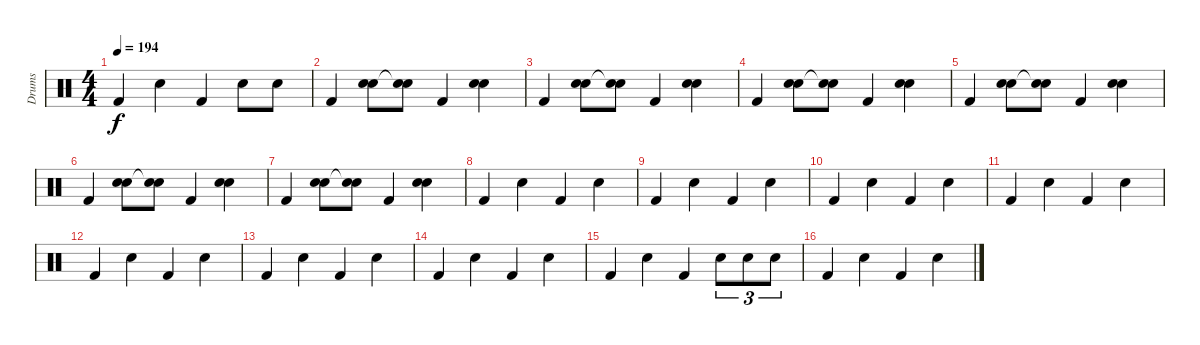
\track ("Drums" "Drums") {instrument percussion}
\staff {score}
\articulation defaults
\ts (4 4)
\tempo 194
\clef neutral
\ks c "Kick (hit) 2".4{dy f} "Snare (hit) 2".4 "Kick (hit) 2".4 "Snare (hit) 2".8 "Snare (hit) 2".8
|
"Kick (hit) 2".4 ("Snare (hit) 2" "Hand Clap (hit)").8 ("Snare (hit)"{t} "Hand Clap (hit)").8 "Kick (hit) 2".4 ("Snare (hit) 2" "Hand Clap (hit)").4 |
"Kick (hit) 2".4 ("Snare (hit) 2" "Hand Clap (hit)").8 ("Snare (hit)"{t} "Hand Clap (hit)").8 "Kick (hit) 2".4 ("Snare (hit) 2" "Hand Clap (hit)").4 |
"Kick (hit) 2".4 ("Snare (hit) 2" "Hand Clap (hit)").8 ("Snare (hit)"{t} "Hand Clap (hit)").8 "Kick (hit) 2".4 ("Snare (hit) 2" "Hand Clap (hit)").4 |
"Kick (hit) 2".4 ("Snare (hit) 2" "Hand Clap (hit)").8 ("Snare (hit)"{t} "Hand Clap (hit)").8 "Kick (hit) 2".4 ("Snare (hit) 2" "Hand Clap (hit)").4 |
"Kick (hit) 2".4 ("Snare (hit) 2" "Hand Clap (hit)").8 ("Snare (hit)"{t} "Hand Clap (hit)").8 "Kick (hit) 2".4 ("Snare (hit) 2" "Hand Clap (hit)").4 |
"Kick (hit) 2".4 ("Snare (hit) 2" "Hand Clap (hit)").8 ("Snare (hit)"{t} "Hand Clap (hit)").8 "Kick (hit) 2".4 ("Snare (hit) 2" "Hand Clap (hit)").4 |
"Kick (hit) 2".4 "Snare (hit) 2".4 "Kick (hit) 2".4 "Snare (hit) 2".4 |
"Kick (hit) 2".4 "Snare (hit) 2".4 "Kick (hit) 2".4 "Snare (hit) 2".4 |
"Kick (hit) 2".4 "Snare (hit) 2".4 "Kick (hit) 2".4 "Snare (hit) 2".4 |
"Kick (hit) 2".4 "Snare (hit) 2".4 "Kick (hit) 2".4 "Snare (hit) 2".4 |
"Kick (hit) 2".4 "Snare (hit) 2".4 "Kick (hit) 2".4 "Snare (hit) 2".4 |
"Kick (hit) 2".4 "Snare (hit) 2".4 "Kick (hit) 2".4 "Snare (hit) 2".4 |
"Kick (hit) 2".4 "Snare (hit) 2".4 "Kick (hit) 2".4 "Snare (hit) 2".4 |
"Kick (hit) 2".4 "Snare (hit) 2".4 "Kick (hit) 2".4 "Snare (hit) 2".8{tu (3 2)} "Snare (hit) 2".8{tu (3 2)} "Snare (hit) 2".8{tu (3 2)} |
"Kick (hit) 2".4 "Snare (hit) 2".4 "Kick (hit) 2".4 "Snare (hit) 2".4
